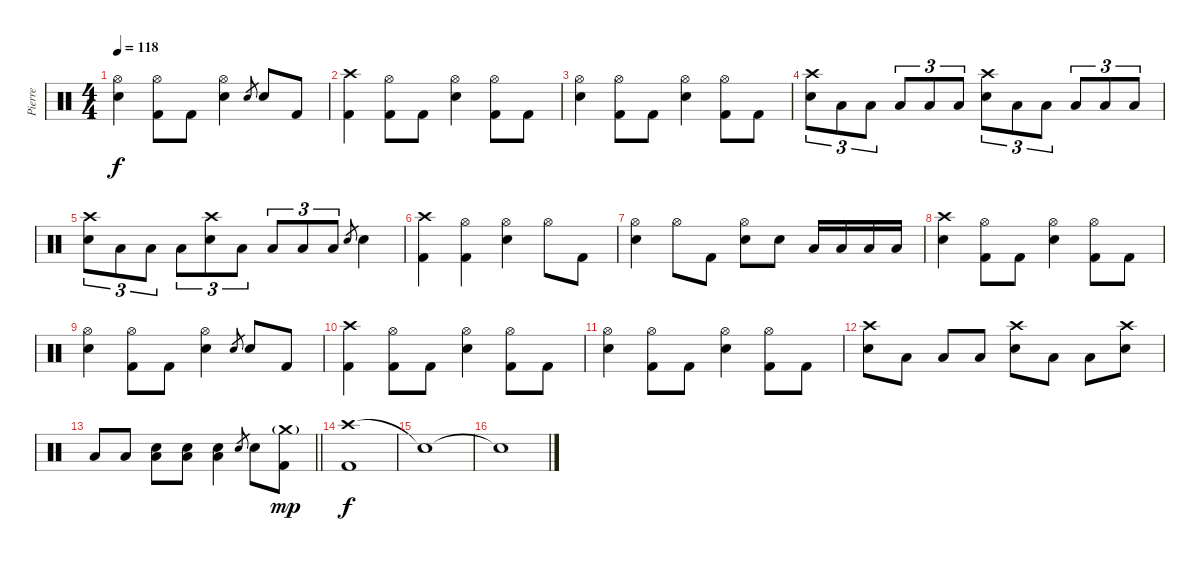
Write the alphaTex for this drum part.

\track ("Pierre" "Pierre") {instrument percussion}
\staff {score}
\articulation defaults
\ts (4 4)
\tempo 118
\clef neutral
\ks c
("Hi-Hat (open)" "Snare (hit) 2").4{dy f} ("Hi-Hat (open)" "Kick (hit) 2").8 "Kick (hit) 2".8 ("Hi-Hat (open)" "Snare (hit) 2").4 "Snare (hit) 2".8{gr} "Snare (hit) 2".8 "Kick (hit) 2".8 |
("Crash high (hit)" "Kick (hit) 2").4 ("Hi-Hat (open)" "Kick (hit) 2").8 "Kick (hit) 2".8 ("Hi-Hat (open)" "Snare (hit) 2").4 ("Hi-Hat (open)" "Kick (hit) 2").8 "Kick (hit) 2".8 |
("Hi-Hat (open)" "Snare (hit) 2").4 ("Hi-Hat (open)" "Kick (hit) 2").8 "Kick (hit) 2".8 ("Hi-Hat (open)" "Snare (hit) 2").4 ("Hi-Hat (open)" "Kick (hit) 2").8 "Kick (hit) 2".8 |
("Crash high (hit)" "Snare (hit) 2").8{tu (3 2)} "Low Tom (hit)".8{tu (3 2)} "Low Tom (hit)".8{tu (3 2)} "Low Floor Tom (hit)".8{tu (3 2)} "Low Floor Tom (hit)".8{tu (3 2)} "Low Floor Tom (hit)".8{tu (3 2)} ("Crash high (hit)" "Snare (hit) 2").8{tu (3 2)} "Low Tom (hit)".8{tu (3 2)} "Low Tom (hit)".8{tu (3 2)} "Low Floor Tom (hit)".8{tu (3 2)} "Low Floor Tom (hit)".8{tu (3 2)} "Low Floor Tom (hit)".8{tu (3 2)} |
("Crash high (hit)" "Snare (hit) 2").8{tu (3 2)} "Low Tom (hit)".8{tu (3 2)} "Low Tom (hit)".8{tu (3 2)} "Low Floor Tom (hit)".8{tu (3 2)} ("Crash high (hit)" "Snare (hit) 2").8{tu (3 2)} "Low Tom (hit)".8{tu (3 2)} "Low Tom (hit)".8{tu (3 2)} "Low Floor Tom (hit)".8{tu (3 2)} "Low Floor Tom (hit)".8{tu (3 2)} "Snare (hit) 2".8{gr} "Snare (hit) 2".4 |
("Crash high (hit)" "Kick (hit) 2").4 ("Hi-Hat (open)" "Kick (hit) 2").4 ("Hi-Hat (open)" "Snare (hit) 2").4 "Hi-Hat (open)".8 "Kick (hit) 2".8 |
("Hi-Hat (open)" "Snare (hit) 2").4 "Hi-Hat (open)".8 "Kick (hit) 2".8 ("Hi-Hat (open)" "Snare (hit) 2").8 "Snare (hit) 2".8 "Low Floor Tom (hit)".16 "Low Floor Tom (hit)".16 "Low Floor Tom (hit)".16 "Low Floor Tom (hit)".16 |
("Crash high (hit)" "Snare (hit) 2").4 ("Hi-Hat (open)" "Kick (hit) 2").8 "Kick (hit) 2".8 ("Hi-Hat (open)" "Snare (hit) 2").4 ("Hi-Hat (open)" "Kick (hit) 2").8 "Kick (hit) 2".8 |
("Hi-Hat (open)" "Snare (hit) 2").4 ("Hi-Hat (open)" "Kick (hit) 2").8 "Kick (hit) 2".8 ("Hi-Hat (open)" "Snare (hit) 2").4 "Snare (hit) 2".8{gr} "Snare (hit) 2".8 "Kick (hit) 2".8 |
("Crash high (hit)" "Kick (hit) 2").4 ("Hi-Hat (open)" "Kick (hit) 2").8 "Kick (hit) 2".8 ("Hi-Hat (open)" "Snare (hit) 2").4 ("Hi-Hat (open)" "Kick (hit) 2").8 "Kick (hit) 2".8 |
("Hi-Hat (open)" "Snare (hit) 2").4 ("Hi-Hat (open)" "Kick (hit) 2").8 "Kick (hit) 2".8 ("Hi-Hat (open)" "Snare (hit) 2").4 ("Hi-Hat (open)" "Kick (hit) 2").8 "Kick (hit) 2".8 |
("Crash high (hit)" "Snare (hit) 2").8 "Low Tom (hit)".8 "Low Floor Tom (hit)".8 "Low Floor Tom (hit)".8 ("Crash high (hit)" "Snare (hit) 2").8 "Low Tom (hit)".8 "Low Floor Tom (hit)".8 ("Crash high (hit)" "Snare (hit) 2").8 |
\barLineRight lightlight "Low Tom (hit)".8 "Low Floor Tom (hit)".8
("Low Tom (hit)" "Snare (hit) 2").8 ("Low Tom (hit)" "Snare (hit) 2").8 ("Low Tom (hit)" "Snare (hit) 2").4 "Snare (hit) 2".8{gr} "Snare (hit) 2".8 ("Crash medium (hit)"{g} "Kick (hit) 2").8{dy mp} |
\section ("" "")
("Crash high (hit)" "Kick (hit) 2").1{dy f volume 0} |
"Snare (hit)"{t}.1 |
"Snare (hit)"{t}.1
